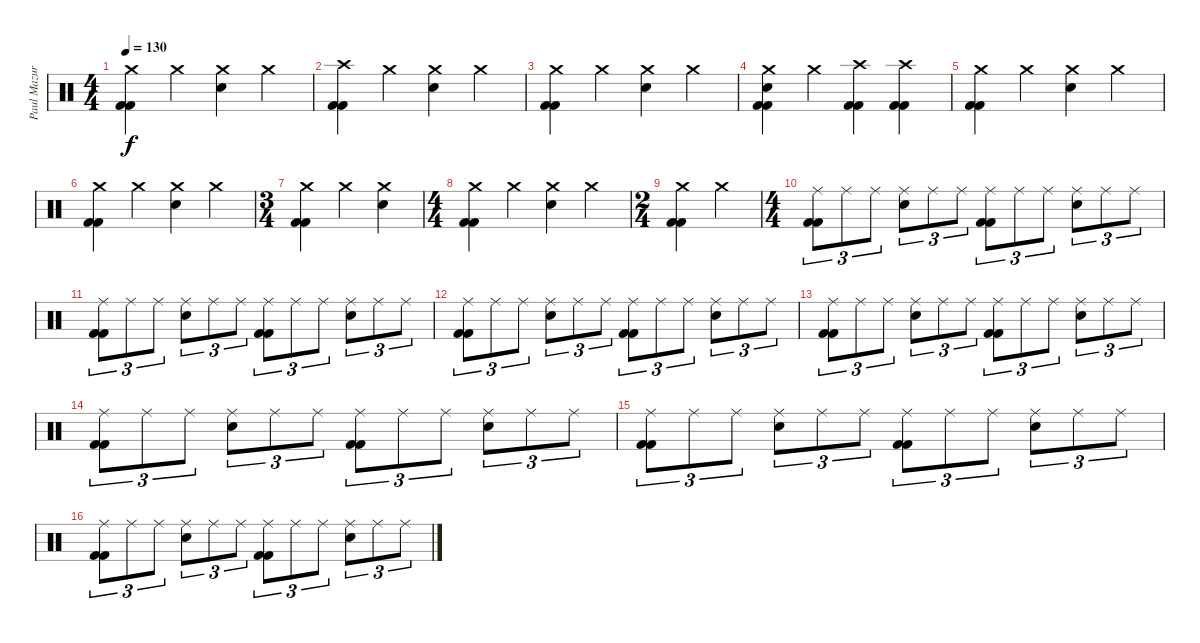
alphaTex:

\track ("Paul Mazurkiewicz" "Paul Mazur") {instrument percussion}
\staff {score}
\articulation defaults
\ts (4 4)
\tempo 130
\clef neutral
\ks c
("Crash medium (hit)" "Kick (hit) 2" "Kick (hit) 2").4{dy f} "Crash medium (hit)".4 ("Crash medium (hit)" "Snare (hit) 2").4 "Crash medium (hit)".4 |
("Crash high (hit)" "Kick (hit) 2" "Kick (hit) 2").4 "Crash medium (hit)".4 ("Crash medium (hit)" "Snare (hit) 2").4 "Crash medium (hit)".4 |
\section ("" "")
("Crash medium (hit)" "Kick (hit) 2" "Kick (hit) 2").4 "Crash medium (hit)".4 ("Crash medium (hit)" "Snare (hit) 2").4 "Crash medium (hit)".4 |
("Crash medium (hit)" "Snare (hit) 2" "Kick (hit) 2" "Kick (hit) 2").4 "Crash medium (hit)".4 ("Crash high (hit)" "Kick (hit) 2" "Kick (hit) 2").4 ("Crash high (hit)" "Kick (hit) 2" "Kick (hit) 2").4 |
("Crash medium (hit)" "Kick (hit) 2" "Kick (hit) 2").4 "Crash medium (hit)".4 ("Crash medium (hit)" "Snare (hit) 2").4 "Crash medium (hit)".4 |
("Crash medium (hit)" "Kick (hit) 2" "Kick (hit) 2").4 "Crash medium (hit)".4 ("Crash medium (hit)" "Snare (hit) 2").4 "Crash medium (hit)".4 |
\ts (3 4)
("Crash medium (hit)" "Kick (hit) 2" "Kick (hit) 2").4 "Crash medium (hit)".4 ("Crash medium (hit)" "Snare (hit) 2").4 |
\ts (4 4)
("Crash medium (hit)" "Kick (hit) 2" "Kick (hit) 2").4 "Crash medium (hit)".4 ("Crash medium (hit)" "Snare (hit) 2").4 "Crash medium (hit)".4 |
\ts (2 4)
("Crash medium (hit)" "Kick (hit) 2" "Kick (hit) 2").4 "Crash medium (hit)".4 |
\ts (4 4)
("Ride (middle)" "Kick (hit) 2" "Kick (hit) 2").8{tu (3 2)} "Ride (middle)".8{tu (3 2)} "Ride (middle)".8{tu (3 2)} ("Ride (middle)" "Snare (hit) 2").8{tu (3 2)} "Ride (middle)".8{tu (3 2)} "Ride (middle)".8{tu (3 2)} ("Ride (middle)" "Kick (hit) 2" "Kick (hit) 2").8{tu (3 2)} "Ride (middle)".8{tu (3 2)} "Ride (middle)".8{tu (3 2)} ("Ride (middle)" "Snare (hit) 2").8{tu (3 2)} "Ride (middle)".8{tu (3 2)} "Ride (middle)".8{tu (3 2)} |
("Ride (middle)" "Kick (hit) 2" "Kick (hit) 2").8{tu (3 2)} "Ride (middle)".8{tu (3 2)} "Ride (middle)".8{tu (3 2)} ("Ride (middle)" "Snare (hit) 2").8{tu (3 2)} "Ride (middle)".8{tu (3 2)} "Ride (middle)".8{tu (3 2)} ("Ride (middle)" "Kick (hit) 2" "Kick (hit) 2").8{tu (3 2)} "Ride (middle)".8{tu (3 2)} "Ride (middle)".8{tu (3 2)} ("Ride (middle)" "Snare (hit) 2").8{tu (3 2)} "Ride (middle)".8{tu (3 2)} "Ride (middle)".8{tu (3 2)} |
("Ride (middle)" "Kick (hit) 2" "Kick (hit) 2").8{tu (3 2)} "Ride (middle)".8{tu (3 2)} "Ride (middle)".8{tu (3 2)} ("Ride (middle)" "Snare (hit) 2").8{tu (3 2)} "Ride (middle)".8{tu (3 2)} "Ride (middle)".8{tu (3 2)} ("Ride (middle)" "Kick (hit) 2" "Kick (hit) 2").8{tu (3 2)} "Ride (middle)".8{tu (3 2)} "Ride (middle)".8{tu (3 2)} ("Ride (middle)" "Snare (hit) 2").8{tu (3 2)} "Ride (middle)".8{tu (3 2)} "Ride (middle)".8{tu (3 2)} |
("Ride (middle)" "Kick (hit) 2" "Kick (hit) 2").8{tu (3 2)} "Ride (middle)".8{tu (3 2)} "Ride (middle)".8{tu (3 2)} ("Ride (middle)" "Snare (hit) 2").8{tu (3 2)} "Ride (middle)".8{tu (3 2)} "Ride (middle)".8{tu (3 2)} ("Ride (middle)" "Kick (hit) 2" "Kick (hit) 2").8{tu (3 2)} "Ride (middle)".8{tu (3 2)} "Ride (middle)".8{tu (3 2)} ("Ride (middle)" "Snare (hit) 2").8{tu (3 2)} "Ride (middle)".8{tu (3 2)} "Ride (middle)".8{tu (3 2)} |
("Ride (middle)" "Kick (hit) 2" "Kick (hit) 2").8{tu (3 2)} "Ride (middle)".8{tu (3 2)} "Ride (middle)".8{tu (3 2)} ("Ride (middle)" "Snare (hit) 2").8{tu (3 2)} "Ride (middle)".8{tu (3 2)} "Ride (middle)".8{tu (3 2)} ("Ride (middle)" "Kick (hit) 2" "Kick (hit) 2").8{tu (3 2)} "Ride (middle)".8{tu (3 2)} "Ride (middle)".8{tu (3 2)} ("Ride (middle)" "Snare (hit) 2").8{tu (3 2)} "Ride (middle)".8{tu (3 2)} "Ride (middle)".8{tu (3 2)} |
("Ride (middle)" "Kick (hit) 2" "Kick (hit) 2").8{tu (3 2)} "Ride (middle)".8{tu (3 2)} "Ride (middle)".8{tu (3 2)} ("Ride (middle)" "Snare (hit) 2").8{tu (3 2)} "Ride (middle)".8{tu (3 2)} "Ride (middle)".8{tu (3 2)} ("Ride (middle)" "Kick (hit) 2" "Kick (hit) 2").8{tu (3 2)} "Ride (middle)".8{tu (3 2)} "Ride (middle)".8{tu (3 2)} ("Ride (middle)" "Snare (hit) 2").8{tu (3 2)} "Ride (middle)".8{tu (3 2)} "Ride (middle)".8{tu (3 2)} |
("Ride (middle)" "Kick (hit) 2" "Kick (hit) 2").8{tu (3 2)} "Ride (middle)".8{tu (3 2)} "Ride (middle)".8{tu (3 2)} ("Ride (middle)" "Snare (hit) 2").8{tu (3 2)} "Ride (middle)".8{tu (3 2)} "Ride (middle)".8{tu (3 2)} ("Ride (middle)" "Kick (hit) 2" "Kick (hit) 2").8{tu (3 2)} "Ride (middle)".8{tu (3 2)} "Ride (middle)".8{tu (3 2)} ("Ride (middle)" "Snare (hit) 2").8{tu (3 2)} "Ride (middle)".8{tu (3 2)} "Ride (middle)".8{tu (3 2)}
